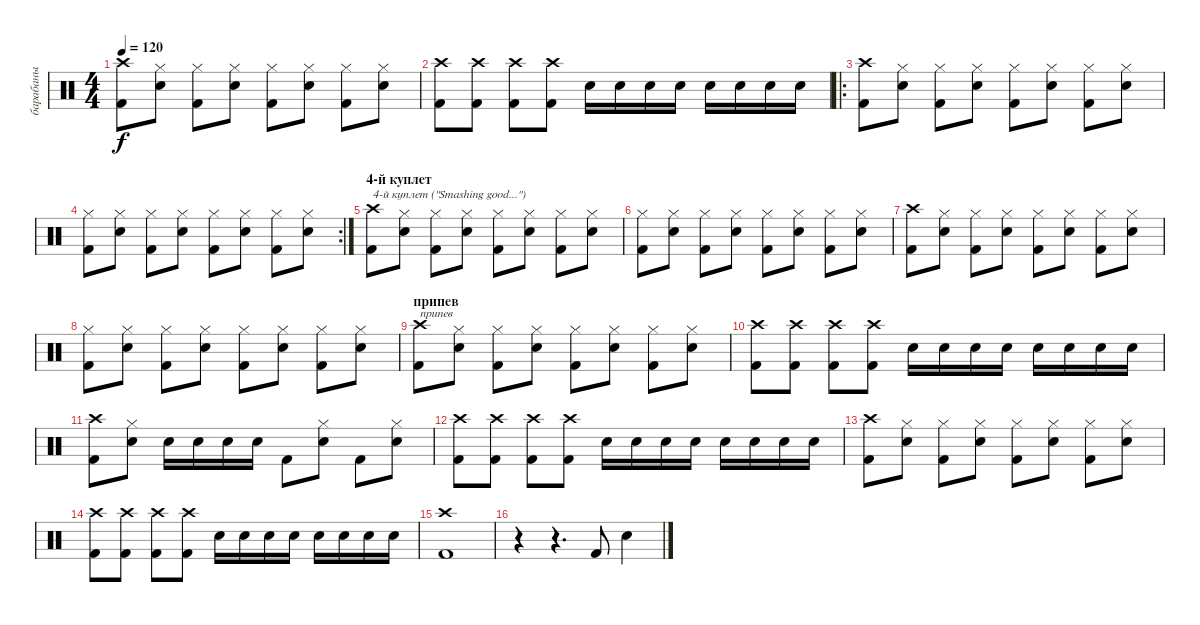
\track ("барабаны" "барабаны") {instrument percussion}
\staff {score}
\articulation defaults
\ts (4 4)
\tempo 120
\clef neutral
\ks c
("Crash high (hit)" "Kick (hit) 2").8{dy f} ("Hi-Hat (closed)" "Snare (hit) 2").8 ("Hi-Hat (closed)" "Kick (hit) 2").8 ("Hi-Hat (closed)" "Snare (hit) 2").8 ("Hi-Hat (closed)" "Kick (hit) 2").8 ("Hi-Hat (closed)" "Snare (hit) 2").8 ("Hi-Hat (closed)" "Kick (hit) 2").8 ("Hi-Hat (closed)" "Snare (hit) 2").8 |
("Crash high (hit)" "Kick (hit) 2").8 ("Crash high (hit)" "Kick (hit) 2").8 ("Crash high (hit)" "Kick (hit) 2").8 ("Crash high (hit)" "Kick (hit) 2").8 "Snare (hit) 2".16 "Snare (hit) 2".16 "Snare (hit) 2".16 "Snare (hit) 2".16 "Snare (hit) 2".16 "Snare (hit) 2".16 "Snare (hit) 2".16 "Snare (hit) 2".16 |
\ro
("Crash high (hit)" "Kick (hit) 2").8 ("Hi-Hat (closed)" "Snare (hit) 2").8 ("Hi-Hat (closed)" "Kick (hit) 2").8 ("Hi-Hat (closed)" "Snare (hit) 2").8 ("Hi-Hat (closed)" "Kick (hit) 2").8 ("Hi-Hat (closed)" "Snare (hit) 2").8 ("Hi-Hat (closed)" "Kick (hit) 2").8 ("Hi-Hat (closed)" "Snare (hit) 2").8 |
\rc 2
("Hi-Hat (closed)" "Kick (hit) 2").8 ("Hi-Hat (closed)" "Snare (hit) 2").8 ("Hi-Hat (closed)" "Kick (hit) 2").8 ("Hi-Hat (closed)" "Snare (hit) 2").8 ("Hi-Hat (closed)" "Kick (hit) 2").8 ("Hi-Hat (closed)" "Snare (hit) 2").8 ("Hi-Hat (closed)" "Kick (hit) 2").8 ("Hi-Hat (closed)" "Snare (hit) 2").8 |
\section ("" "4-й куплет")
("Crash high (hit)" "Kick (hit) 2").8{txt "4-й куплет (\"Smashing good...\")"} ("Hi-Hat (closed)" "Snare (hit) 2").8 ("Hi-Hat (closed)" "Kick (hit) 2").8 ("Hi-Hat (closed)" "Snare (hit) 2").8 ("Hi-Hat (closed)" "Kick (hit) 2").8 ("Hi-Hat (closed)" "Snare (hit) 2").8 ("Hi-Hat (closed)" "Kick (hit) 2").8 ("Hi-Hat (closed)" "Snare (hit) 2").8 |
("Hi-Hat (closed)" "Kick (hit) 2").8 ("Hi-Hat (closed)" "Snare (hit) 2").8 ("Hi-Hat (closed)" "Kick (hit) 2").8 ("Hi-Hat (closed)" "Snare (hit) 2").8 ("Hi-Hat (closed)" "Kick (hit) 2").8 ("Hi-Hat (closed)" "Snare (hit) 2").8 ("Hi-Hat (closed)" "Kick (hit) 2").8 ("Hi-Hat (closed)" "Snare (hit) 2").8 |
("Crash high (hit)" "Kick (hit) 2").8 ("Hi-Hat (closed)" "Snare (hit) 2").8 ("Hi-Hat (closed)" "Kick (hit) 2").8 ("Hi-Hat (closed)" "Snare (hit) 2").8 ("Hi-Hat (closed)" "Kick (hit) 2").8 ("Hi-Hat (closed)" "Snare (hit) 2").8 ("Hi-Hat (closed)" "Kick (hit) 2").8 ("Hi-Hat (closed)" "Snare (hit) 2").8 |
("Hi-Hat (closed)" "Kick (hit) 2").8 ("Hi-Hat (closed)" "Snare (hit) 2").8 ("Hi-Hat (closed)" "Kick (hit) 2").8 ("Hi-Hat (closed)" "Snare (hit) 2").8 ("Hi-Hat (closed)" "Kick (hit) 2").8 ("Hi-Hat (closed)" "Snare (hit) 2").8 ("Hi-Hat (closed)" "Kick (hit) 2").8 ("Hi-Hat (closed)" "Snare (hit) 2").8 |
\section ("" "припев")
("Crash high (hit)" "Kick (hit) 2").8{txt "припев"} ("Hi-Hat (closed)" "Snare (hit) 2").8 ("Hi-Hat (closed)" "Kick (hit) 2").8 ("Hi-Hat (closed)" "Snare (hit) 2").8 ("Hi-Hat (closed)" "Kick (hit) 2").8 ("Hi-Hat (closed)" "Snare (hit) 2").8 ("Hi-Hat (closed)" "Kick (hit) 2").8 ("Hi-Hat (closed)" "Snare (hit) 2").8 |
("Crash high (hit)" "Kick (hit) 2").8 ("Crash high (hit)" "Kick (hit) 2").8 ("Crash high (hit)" "Kick (hit) 2").8 ("Crash high (hit)" "Kick (hit) 2").8 "Snare (hit) 2".16 "Snare (hit) 2".16 "Snare (hit) 2".16 "Snare (hit) 2".16 "Snare (hit) 2".16 "Snare (hit) 2".16 "Snare (hit) 2".16 "Snare (hit) 2".16 |
("Crash high (hit)" "Kick (hit) 2").8 ("Hi-Hat (closed)" "Snare (hit) 2").8 "Snare (hit) 2".16 "Snare (hit) 2".16 "Snare (hit) 2".16 "Snare (hit) 2".16 "Kick (hit) 2".8 ("Hi-Hat (closed)" "Snare (hit) 2").8 "Kick (hit) 2".8 ("Hi-Hat (closed)" "Snare (hit) 2").8 |
("Crash high (hit)" "Kick (hit) 2").8 ("Crash high (hit)" "Kick (hit) 2").8 ("Crash high (hit)" "Kick (hit) 2").8 ("Crash high (hit)" "Kick (hit) 2").8 "Snare (hit) 2".16 "Snare (hit) 2".16 "Snare (hit) 2".16 "Snare (hit) 2".16 "Snare (hit) 2".16 "Snare (hit) 2".16 "Snare (hit) 2".16 "Snare (hit) 2".16 |
("Crash high (hit)" "Kick (hit) 2").8 ("Hi-Hat (closed)" "Snare (hit) 2").8 ("Hi-Hat (closed)" "Kick (hit) 2").8 ("Hi-Hat (closed)" "Snare (hit) 2").8 ("Hi-Hat (closed)" "Kick (hit) 2").8 ("Hi-Hat (closed)" "Snare (hit) 2").8 ("Hi-Hat (closed)" "Kick (hit) 2").8 ("Hi-Hat (closed)" "Snare (hit) 2").8 |
("Crash high (hit)" "Kick (hit) 2").8 ("Crash high (hit)" "Kick (hit) 2").8 ("Crash high (hit)" "Kick (hit) 2").8 ("Crash high (hit)" "Kick (hit) 2").8 "Snare (hit) 2".16 "Snare (hit) 2".16 "Snare (hit) 2".16 "Snare (hit) 2".16 "Snare (hit) 2".16 "Snare (hit) 2".16 "Snare (hit) 2".16 "Snare (hit) 2".16 |
("Crash high (hit)" "Kick (hit) 2").1 |
r.4 r.4{d} "Kick (hit) 2".8 "Snare (hit) 2".4
